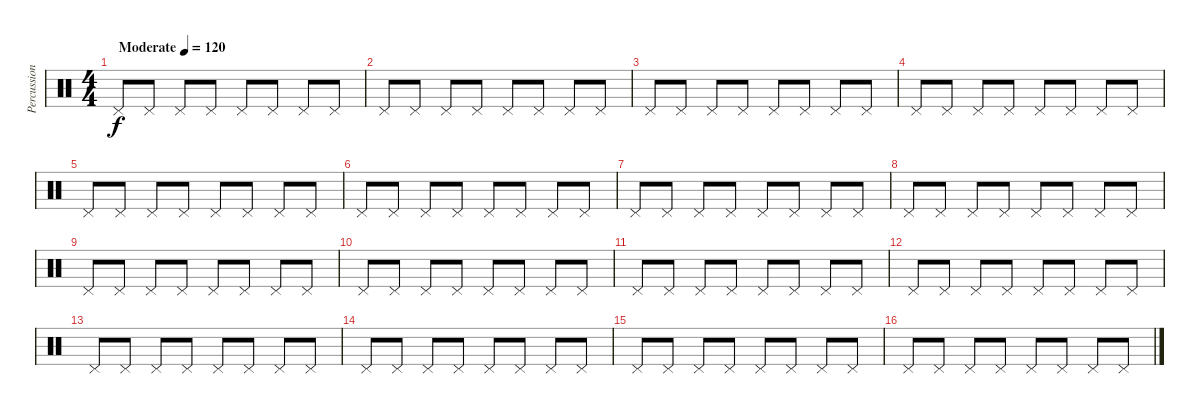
\track ("Percussion" "Percussion") {instrument percussion}
\staff {score}
\articulation defaults
\ts (4 4)
\tempo (120 "Moderate")
\clef neutral
\ks c "Pedal Hi-Hat (hit)".8{dy f} "Pedal Hi-Hat (hit)".8 "Pedal Hi-Hat (hit)".8 "Pedal Hi-Hat (hit)".8 "Pedal Hi-Hat (hit)".8 "Pedal Hi-Hat (hit)".8 "Pedal Hi-Hat (hit)".8 "Pedal Hi-Hat (hit)".8
|
"Pedal Hi-Hat (hit)".8 "Pedal Hi-Hat (hit)".8 "Pedal Hi-Hat (hit)".8 "Pedal Hi-Hat (hit)".8 "Pedal Hi-Hat (hit)".8 "Pedal Hi-Hat (hit)".8 "Pedal Hi-Hat (hit)".8 "Pedal Hi-Hat (hit)".8 |
"Pedal Hi-Hat (hit)".8 "Pedal Hi-Hat (hit)".8 "Pedal Hi-Hat (hit)".8 "Pedal Hi-Hat (hit)".8 "Pedal Hi-Hat (hit)".8 "Pedal Hi-Hat (hit)".8 "Pedal Hi-Hat (hit)".8 "Pedal Hi-Hat (hit)".8 |
"Pedal Hi-Hat (hit)".8 "Pedal Hi-Hat (hit)".8 "Pedal Hi-Hat (hit)".8 "Pedal Hi-Hat (hit)".8 "Pedal Hi-Hat (hit)".8 "Pedal Hi-Hat (hit)".8 "Pedal Hi-Hat (hit)".8 "Pedal Hi-Hat (hit)".8 |
"Pedal Hi-Hat (hit)".8 "Pedal Hi-Hat (hit)".8 "Pedal Hi-Hat (hit)".8 "Pedal Hi-Hat (hit)".8 "Pedal Hi-Hat (hit)".8 "Pedal Hi-Hat (hit)".8 "Pedal Hi-Hat (hit)".8 "Pedal Hi-Hat (hit)".8 |
"Pedal Hi-Hat (hit)".8 "Pedal Hi-Hat (hit)".8 "Pedal Hi-Hat (hit)".8 "Pedal Hi-Hat (hit)".8 "Pedal Hi-Hat (hit)".8 "Pedal Hi-Hat (hit)".8 "Pedal Hi-Hat (hit)".8 "Pedal Hi-Hat (hit)".8 |
"Pedal Hi-Hat (hit)".8 "Pedal Hi-Hat (hit)".8 "Pedal Hi-Hat (hit)".8 "Pedal Hi-Hat (hit)".8 "Pedal Hi-Hat (hit)".8 "Pedal Hi-Hat (hit)".8 "Pedal Hi-Hat (hit)".8 "Pedal Hi-Hat (hit)".8 |
"Pedal Hi-Hat (hit)".8 "Pedal Hi-Hat (hit)".8 "Pedal Hi-Hat (hit)".8 "Pedal Hi-Hat (hit)".8 "Pedal Hi-Hat (hit)".8 "Pedal Hi-Hat (hit)".8 "Pedal Hi-Hat (hit)".8 "Pedal Hi-Hat (hit)".8 |
"Pedal Hi-Hat (hit)".8 "Pedal Hi-Hat (hit)".8 "Pedal Hi-Hat (hit)".8 "Pedal Hi-Hat (hit)".8 "Pedal Hi-Hat (hit)".8 "Pedal Hi-Hat (hit)".8 "Pedal Hi-Hat (hit)".8 "Pedal Hi-Hat (hit)".8 |
"Pedal Hi-Hat (hit)".8 "Pedal Hi-Hat (hit)".8 "Pedal Hi-Hat (hit)".8 "Pedal Hi-Hat (hit)".8 "Pedal Hi-Hat (hit)".8 "Pedal Hi-Hat (hit)".8 "Pedal Hi-Hat (hit)".8 "Pedal Hi-Hat (hit)".8 |
"Pedal Hi-Hat (hit)".8 "Pedal Hi-Hat (hit)".8 "Pedal Hi-Hat (hit)".8 "Pedal Hi-Hat (hit)".8 "Pedal Hi-Hat (hit)".8 "Pedal Hi-Hat (hit)".8 "Pedal Hi-Hat (hit)".8 "Pedal Hi-Hat (hit)".8 |
"Pedal Hi-Hat (hit)".8 "Pedal Hi-Hat (hit)".8 "Pedal Hi-Hat (hit)".8 "Pedal Hi-Hat (hit)".8 "Pedal Hi-Hat (hit)".8 "Pedal Hi-Hat (hit)".8 "Pedal Hi-Hat (hit)".8 "Pedal Hi-Hat (hit)".8 |
"Pedal Hi-Hat (hit)".8 "Pedal Hi-Hat (hit)".8 "Pedal Hi-Hat (hit)".8 "Pedal Hi-Hat (hit)".8 "Pedal Hi-Hat (hit)".8 "Pedal Hi-Hat (hit)".8 "Pedal Hi-Hat (hit)".8 "Pedal Hi-Hat (hit)".8 |
"Pedal Hi-Hat (hit)".8 "Pedal Hi-Hat (hit)".8 "Pedal Hi-Hat (hit)".8 "Pedal Hi-Hat (hit)".8 "Pedal Hi-Hat (hit)".8 "Pedal Hi-Hat (hit)".8 "Pedal Hi-Hat (hit)".8 "Pedal Hi-Hat (hit)".8 |
"Pedal Hi-Hat (hit)".8 "Pedal Hi-Hat (hit)".8 "Pedal Hi-Hat (hit)".8 "Pedal Hi-Hat (hit)".8 "Pedal Hi-Hat (hit)".8 "Pedal Hi-Hat (hit)".8 "Pedal Hi-Hat (hit)".8 "Pedal Hi-Hat (hit)".8 |
"Pedal Hi-Hat (hit)".8 "Pedal Hi-Hat (hit)".8 "Pedal Hi-Hat (hit)".8 "Pedal Hi-Hat (hit)".8 "Pedal Hi-Hat (hit)".8 "Pedal Hi-Hat (hit)".8 "Pedal Hi-Hat (hit)".8 "Pedal Hi-Hat (hit)".8
